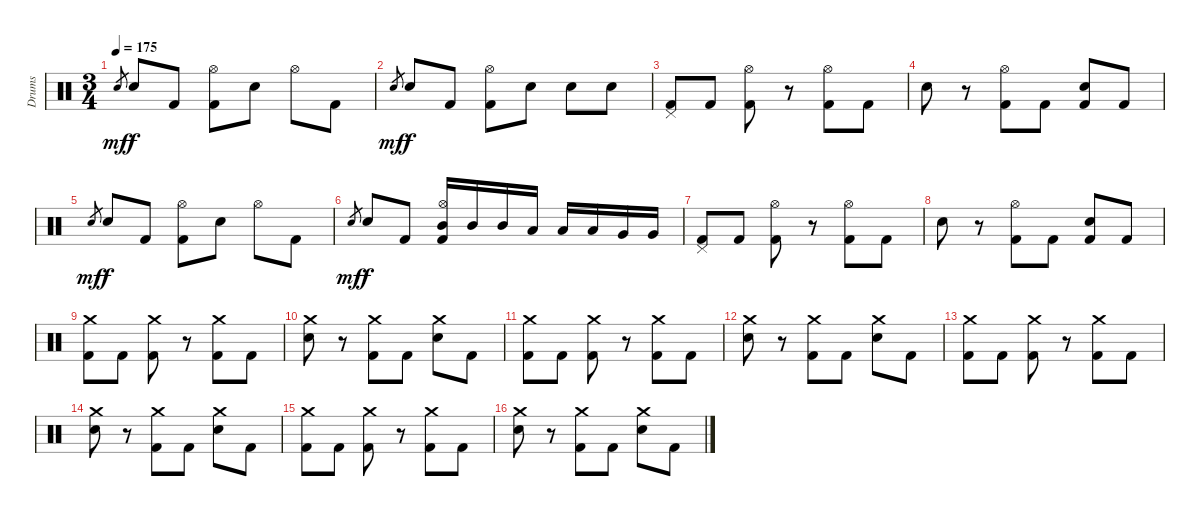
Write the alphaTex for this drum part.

\track ("Drums" "Drums") {instrument percussion}
\staff {score}
\articulation defaults
\ts (3 4)
\tempo 175
\clef neutral
\ks c "Electric Snare (hit)".8{gr dy mf} "Electric Snare (hit)".8{dy f} "Kick (hit) 2".8
("Hi-Hat (open)" "Kick (hit) 2").8 "Electric Snare (hit)".8 "Hi-Hat (open)".8 "Kick (hit) 2".8 |
"Electric Snare (hit)".8{gr dy mf} "Electric Snare (hit)".8{dy f} "Kick (hit) 2".8 ("Hi-Hat (open)" "Kick (hit) 2").8 "Electric Snare (hit)".8 "Electric Snare (hit)".8 "Electric Snare (hit)".8 |
("Pedal Hi-Hat (hit)" "Kick (hit) 2").8 "Kick (hit) 2".8 ("Hi-Hat (open)" "Kick (hit) 2").8 r.8 ("Hi-Hat (open)" "Kick (hit) 2").8 "Kick (hit) 2".8 |
"Electric Snare (hit)".8 r.8 ("Hi-Hat (open)" "Kick (hit) 2").8 "Kick (hit) 2".8 ("Kick (hit) 2" "Electric Snare (hit)").8 "Kick (hit) 2".8 |
"Electric Snare (hit)".8{gr dy mf} "Electric Snare (hit)".8{dy f} "Kick (hit) 2".8 ("Hi-Hat (open)" "Kick (hit) 2").8 "Electric Snare (hit)".8 "Hi-Hat (open)".8 "Kick (hit) 2".8 |
"Electric Snare (hit)".8{gr dy mf} "Electric Snare (hit)".8{dy f} "Kick (hit) 2".8 ("Hi-Hat (open)" "Mid Tom (hit)" "Kick (hit) 2").16 "Mid Tom (hit)".16 "Mid Tom (hit)".16 "Low Tom (hit)".16 "Low Tom (hit)".16 "Low Tom (hit)".16 "Very Low Tom (hit)".16 "Very Low Tom (hit)".16 |
("Pedal Hi-Hat (hit)" "Kick (hit) 2").8 "Kick (hit) 2".8 ("Hi-Hat (open)" "Kick (hit) 2").8 r.8 ("Hi-Hat (open)" "Kick (hit) 2").8 "Kick (hit) 2".8 |
"Electric Snare (hit)".8 r.8 ("Hi-Hat (open)" "Kick (hit) 2").8 "Kick (hit) 2".8 ("Kick (hit) 2" "Electric Snare (hit)").8 "Kick (hit) 2".8 |
("Crash medium (hit)" "Kick (hit) 2").8 "Kick (hit) 2".8 ("Crash medium (hit)" "Kick (hit) 2").8 r.8 ("Crash medium (hit)" "Kick (hit) 2").8 "Kick (hit) 2".8 |
("Crash medium (hit)" "Electric Snare (hit)").8 r.8 ("Crash medium (hit)" "Kick (hit) 2").8 "Kick (hit) 2".8 ("Crash medium (hit)" "Electric Snare (hit)").8 "Kick (hit) 2".8 |
("Crash medium (hit)" "Kick (hit) 2").8 "Kick (hit) 2".8 ("Crash medium (hit)" "Kick (hit) 2").8 r.8 ("Crash medium (hit)" "Kick (hit) 2").8 "Kick (hit) 2".8 |
("Crash medium (hit)" "Electric Snare (hit)").8 r.8 ("Crash medium (hit)" "Kick (hit) 2").8 "Kick (hit) 2".8 ("Crash medium (hit)" "Electric Snare (hit)").8 "Kick (hit) 2".8 |
("Crash medium (hit)" "Kick (hit) 2").8 "Kick (hit) 2".8 ("Crash medium (hit)" "Kick (hit) 2").8 r.8 ("Crash medium (hit)" "Kick (hit) 2").8 "Kick (hit) 2".8 |
("Crash medium (hit)" "Electric Snare (hit)").8 r.8 ("Crash medium (hit)" "Kick (hit) 2").8 "Kick (hit) 2".8 ("Crash medium (hit)" "Electric Snare (hit)").8 "Kick (hit) 2".8 |
("Crash medium (hit)" "Kick (hit) 2").8 "Kick (hit) 2".8 ("Crash medium (hit)" "Kick (hit) 2").8 r.8 ("Crash medium (hit)" "Kick (hit) 2").8 "Kick (hit) 2".8 |
("Crash medium (hit)" "Electric Snare (hit)").8 r.8 ("Crash medium (hit)" "Kick (hit) 2").8 "Kick (hit) 2".8 ("Crash medium (hit)" "Electric Snare (hit)").8 "Kick (hit) 2".8
